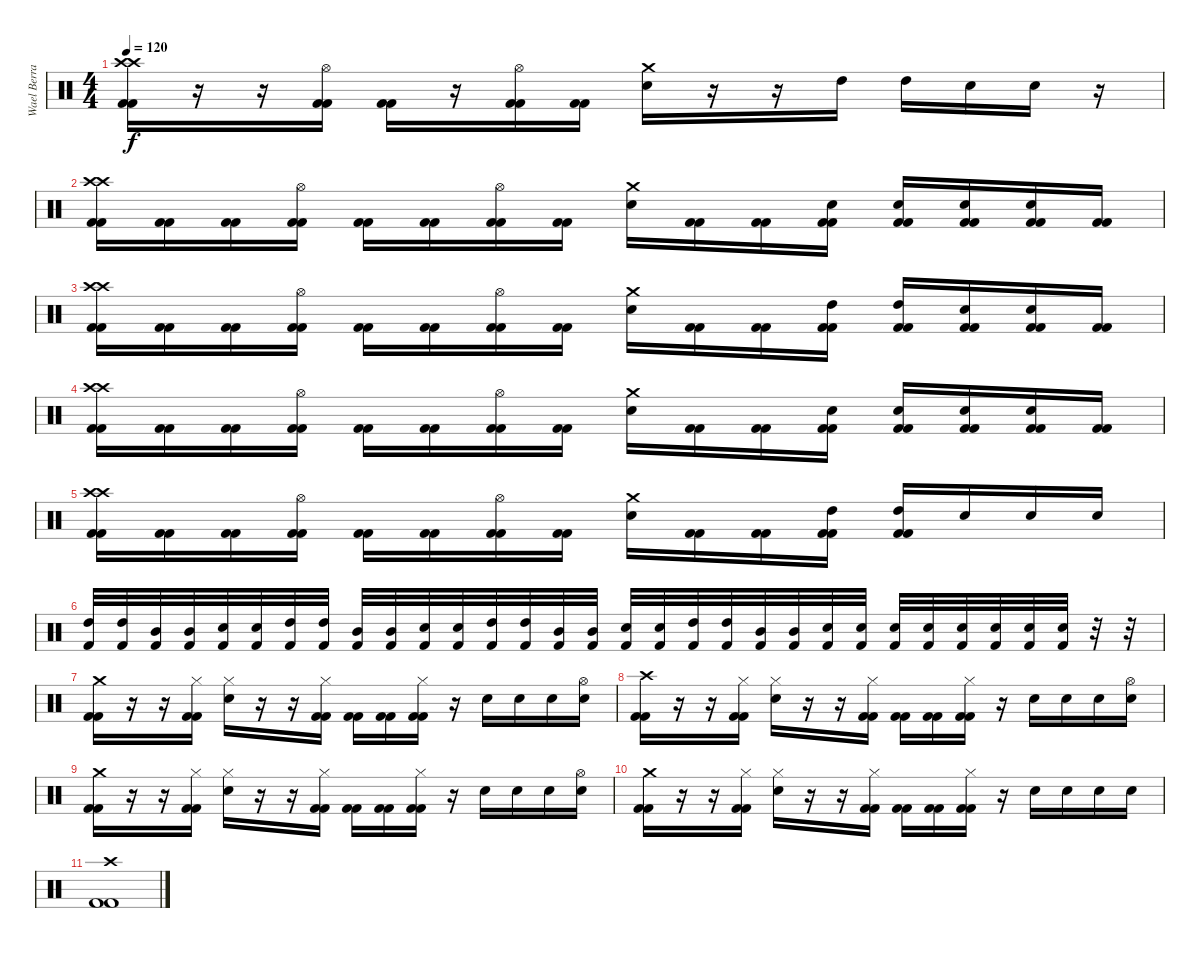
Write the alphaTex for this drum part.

\track ("Wael Berrais" "Wael Berra") {instrument percussion}
\staff {score}
\articulation defaults
\ts (4 4)
\tempo 120
\clef neutral
\ks c
("Crash high (hit)" "Crash high (hit)" "Kick (hit) 2" "Kick (hit) 2").16{dy f} r.16 r.16 ("Hi-Hat (open)" "Kick (hit) 2" "Kick (hit) 2").16 ("Kick (hit) 2" "Kick (hit) 2").16 r.16 ("Hi-Hat (open)" "Kick (hit) 2" "Kick (hit) 2").16 ("Kick (hit) 2" "Kick (hit) 2").16 ("Crash medium (hit)" "Electric Snare (hit)").16 r.16 r.16 "High Tom (hit)".16 "High Tom (hit)".16 "Electric Snare (hit)".16 "Electric Snare (hit)".16 r.16 |
("Crash high (hit)" "Crash high (hit)" "Kick (hit) 2" "Kick (hit) 2").16 ("Kick (hit) 2" "Kick (hit) 2").16 ("Kick (hit) 2" "Kick (hit) 2").16 ("Hi-Hat (open)" "Kick (hit) 2" "Kick (hit) 2").16 ("Kick (hit) 2" "Kick (hit) 2").16 ("Kick (hit) 2" "Kick (hit) 2").16 ("Hi-Hat (open)" "Kick (hit) 2" "Kick (hit) 2").16 ("Kick (hit) 2" "Kick (hit) 2").16 ("Crash medium (hit)" "Electric Snare (hit)").16 ("Kick (hit) 2" "Kick (hit) 2").16 ("Kick (hit) 2" "Kick (hit) 2").16 ("Electric Snare (hit)" "Kick (hit) 2" "Kick (hit) 2").16 ("Electric Snare (hit)" "Kick (hit) 2" "Kick (hit) 2").16 ("Electric Snare (hit)" "Kick (hit) 2" "Kick (hit) 2").16 ("Electric Snare (hit)" "Kick (hit) 2" "Kick (hit) 2").16 ("Kick (hit) 2" "Kick (hit) 2").16 |
("Crash high (hit)" "Crash high (hit)" "Kick (hit) 2" "Kick (hit) 2").16 ("Kick (hit) 2" "Kick (hit) 2").16 ("Kick (hit) 2" "Kick (hit) 2").16 ("Hi-Hat (open)" "Kick (hit) 2" "Kick (hit) 2").16 ("Kick (hit) 2" "Kick (hit) 2").16 ("Kick (hit) 2" "Kick (hit) 2").16 ("Hi-Hat (open)" "Kick (hit) 2" "Kick (hit) 2").16 ("Kick (hit) 2" "Kick (hit) 2").16 ("Crash medium (hit)" "Electric Snare (hit)").16 ("Kick (hit) 2" "Kick (hit) 2").16 ("Kick (hit) 2" "Kick (hit) 2").16 ("High Tom (hit)" "Kick (hit) 2" "Kick (hit) 2").16 ("High Tom (hit)" "Kick (hit) 2" "Kick (hit) 2").16 ("Electric Snare (hit)" "Kick (hit) 2" "Kick (hit) 2").16 ("Electric Snare (hit)" "Kick (hit) 2" "Kick (hit) 2").16 ("Kick (hit) 2" "Kick (hit) 2").16 |
("Crash high (hit)" "Crash high (hit)" "Kick (hit) 2" "Kick (hit) 2").16 ("Kick (hit) 2" "Kick (hit) 2").16 ("Kick (hit) 2" "Kick (hit) 2").16 ("Hi-Hat (open)" "Kick (hit) 2" "Kick (hit) 2").16 ("Kick (hit) 2" "Kick (hit) 2").16 ("Kick (hit) 2" "Kick (hit) 2").16 ("Hi-Hat (open)" "Kick (hit) 2" "Kick (hit) 2").16 ("Kick (hit) 2" "Kick (hit) 2").16 ("Crash medium (hit)" "Electric Snare (hit)").16 ("Kick (hit) 2" "Kick (hit) 2").16 ("Kick (hit) 2" "Kick (hit) 2").16 ("Electric Snare (hit)" "Kick (hit) 2" "Kick (hit) 2").16 ("Electric Snare (hit)" "Kick (hit) 2" "Kick (hit) 2").16 ("Electric Snare (hit)" "Kick (hit) 2" "Kick (hit) 2").16 ("Electric Snare (hit)" "Kick (hit) 2" "Kick (hit) 2").16 ("Kick (hit) 2" "Kick (hit) 2").16 |
("Crash high (hit)" "Crash high (hit)" "Kick (hit) 2" "Kick (hit) 2").16 ("Kick (hit) 2" "Kick (hit) 2").16 ("Kick (hit) 2" "Kick (hit) 2").16 ("Hi-Hat (open)" "Kick (hit) 2" "Kick (hit) 2").16 ("Kick (hit) 2" "Kick (hit) 2").16 ("Kick (hit) 2" "Kick (hit) 2").16 ("Hi-Hat (open)" "Kick (hit) 2" "Kick (hit) 2").16 ("Kick (hit) 2" "Kick (hit) 2").16 ("Crash medium (hit)" "Electric Snare (hit)").16 ("Kick (hit) 2" "Kick (hit) 2").16 ("Kick (hit) 2" "Kick (hit) 2").16 ("High Tom (hit)" "Kick (hit) 2" "Kick (hit) 2").16 ("High Tom (hit)" "Kick (hit) 2" "Kick (hit) 2").16 "Electric Snare (hit)".16 "Electric Snare (hit)".16 "Electric Snare (hit)".16 |
("High Tom (hit)" "Kick (hit) 2").32 ("High Tom (hit)" "Kick (hit) 2").32 ("Mid Tom (hit)" "Kick (hit) 2").32 ("Mid Tom (hit)" "Kick (hit) 2").32 ("Electric Snare (hit)" "Kick (hit) 2").32 ("Electric Snare (hit)" "Kick (hit) 2").32 ("High Tom (hit)" "Kick (hit) 2").32 ("High Tom (hit)" "Kick (hit) 2").32 ("Mid Tom (hit)" "Kick (hit) 2").32 ("Mid Tom (hit)" "Kick (hit) 2").32 ("Electric Snare (hit)" "Kick (hit) 2").32 ("Electric Snare (hit)" "Kick (hit) 2").32 ("High Tom (hit)" "Kick (hit) 2").32 ("High Tom (hit)" "Kick (hit) 2").32 ("Mid Tom (hit)" "Kick (hit) 2").32 ("Mid Tom (hit)" "Kick (hit) 2").32 ("Electric Snare (hit)" "Kick (hit) 2").32 ("Electric Snare (hit)" "Kick (hit) 2").32 ("High Tom (hit)" "Kick (hit) 2").32 ("High Tom (hit)" "Kick (hit) 2").32 ("Mid Tom (hit)" "Kick (hit) 2").32 ("Mid Tom (hit)" "Kick (hit) 2").32 ("Electric Snare (hit)" "Kick (hit) 2").32 ("Electric Snare (hit)" "Kick (hit) 2").32 ("Electric Snare (hit)" "Kick (hit) 2").32 ("Electric Snare (hit)" "Kick (hit) 2").32 ("Electric Snare (hit)" "Kick (hit) 2").32 ("Electric Snare (hit)" "Kick (hit) 2").32 ("Electric Snare (hit)" "Kick (hit) 2").32 ("Electric Snare (hit)" "Kick (hit) 2").32 r.32 r.32 |
("Crash medium (hit)" "Kick (hit) 2" "Kick (hit) 2").16 r.16 r.16 ("Hi-Hat (closed)" "Kick (hit) 2" "Kick (hit) 2").16 ("Hi-Hat (closed)" "Electric Snare (hit)").16 r.16 r.16 ("Hi-Hat (closed)" "Kick (hit) 2" "Kick (hit) 2").16 ("Kick (hit) 2" "Kick (hit) 2").16 ("Kick (hit) 2" "Kick (hit) 2").16 ("Hi-Hat (closed)" "Kick (hit) 2" "Kick (hit) 2").16 r.16 "Electric Snare (hit)".16 "Electric Snare (hit)".16 "Electric Snare (hit)".16 ("Electric Snare (hit)" "Hi-Hat (open)").16 |
("Crash high (hit)" "Kick (hit) 2" "Kick (hit) 2").16 r.16 r.16 ("Hi-Hat (closed)" "Kick (hit) 2" "Kick (hit) 2").16 ("Hi-Hat (closed)" "Electric Snare (hit)").16 r.16 r.16 ("Hi-Hat (closed)" "Kick (hit) 2" "Kick (hit) 2").16 ("Kick (hit) 2" "Kick (hit) 2").16 ("Kick (hit) 2" "Kick (hit) 2").16 ("Hi-Hat (closed)" "Kick (hit) 2" "Kick (hit) 2").16 r.16 "Electric Snare (hit)".16 "Electric Snare (hit)".16 "Electric Snare (hit)".16 ("Electric Snare (hit)" "Hi-Hat (open)").16 |
("Crash medium (hit)" "Kick (hit) 2" "Kick (hit) 2").16 r.16 r.16 ("Hi-Hat (closed)" "Kick (hit) 2" "Kick (hit) 2").16 ("Hi-Hat (closed)" "Electric Snare (hit)").16 r.16 r.16 ("Hi-Hat (closed)" "Kick (hit) 2" "Kick (hit) 2").16 ("Kick (hit) 2" "Kick (hit) 2").16 ("Kick (hit) 2" "Kick (hit) 2").16 ("Hi-Hat (closed)" "Kick (hit) 2" "Kick (hit) 2").16 r.16 "Electric Snare (hit)".16 "Electric Snare (hit)".16 "Electric Snare (hit)".16 ("Electric Snare (hit)" "Hi-Hat (open)").16 |
("Crash medium (hit)" "Kick (hit) 2" "Kick (hit) 2").16 r.16 r.16 ("Hi-Hat (closed)" "Kick (hit) 2" "Kick (hit) 2").16 ("Hi-Hat (closed)" "Electric Snare (hit)").16 r.16 r.16 ("Hi-Hat (closed)" "Kick (hit) 2" "Kick (hit) 2").16 ("Kick (hit) 2" "Kick (hit) 2").16 ("Kick (hit) 2" "Kick (hit) 2").16 ("Hi-Hat (closed)" "Kick (hit) 2" "Kick (hit) 2").16 r.16 "Electric Snare (hit)".16 "Electric Snare (hit)".16 "Electric Snare (hit)".16 "Electric Snare (hit)".16 |
("Crash high (hit)" "Kick (hit) 2" "Kick (hit) 2").1
